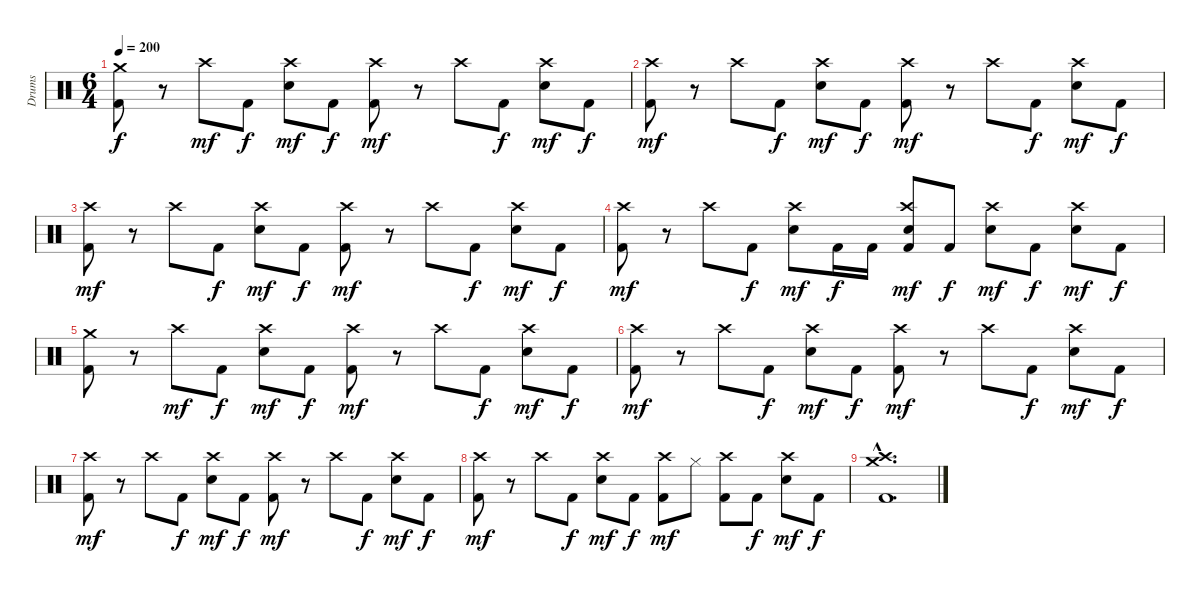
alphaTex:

\track ("Drums" "Drums") {instrument percussion}
\staff {score}
\articulation defaults
\ts (6 4)
\tempo 200
\clef neutral
\ks c
("Crash medium (hit)" "Kick (hit) 2").8{dy f} r.8 "Crash high (hit)".8{dy mf} "Kick (hit) 2".8{dy f} ("Crash high (hit)" "Snare (hit) 2").8{dy mf} "Kick (hit) 2".8{dy f} ("Crash high (hit)" "Kick (hit) 2").8{dy mf} r.8 "Crash high (hit)".8 "Kick (hit) 2".8{dy f} ("Crash high (hit)" "Snare (hit) 2").8{dy mf} "Kick (hit) 2".8{dy f} |
("Crash high (hit)" "Kick (hit) 2").8{dy mf} r.8 "Crash high (hit)".8 "Kick (hit) 2".8{dy f} ("Crash high (hit)" "Snare (hit) 2").8{dy mf} "Kick (hit) 2".8{dy f} ("Crash high (hit)" "Kick (hit) 2").8{dy mf} r.8 "Crash high (hit)".8 "Kick (hit) 2".8{dy f} ("Crash high (hit)" "Snare (hit) 2").8{dy mf} "Kick (hit) 2".8{dy f} |
("Crash high (hit)" "Kick (hit) 2").8{dy mf} r.8 "Crash high (hit)".8 "Kick (hit) 2".8{dy f} ("Crash high (hit)" "Snare (hit) 2").8{dy mf} "Kick (hit) 2".8{dy f} ("Crash high (hit)" "Kick (hit) 2").8{dy mf} r.8 "Crash high (hit)".8 "Kick (hit) 2".8{dy f} ("Crash high (hit)" "Snare (hit) 2").8{dy mf} "Kick (hit) 2".8{dy f} |
("Crash high (hit)" "Kick (hit) 2").8{dy mf} r.8 "Crash high (hit)".8 "Kick (hit) 2".8{dy f} ("Crash high (hit)" "Snare (hit) 2").8{dy mf} "Kick (hit) 2".16{dy f} "Kick (hit) 2".16 ("Crash high (hit)" "Snare (hit) 2" "Kick (hit) 2").8{dy mf} "Kick (hit) 2".8{dy f} ("Crash high (hit)" "Snare (hit) 2").8{dy mf} "Kick (hit) 2".8{dy f} ("Crash high (hit)" "Snare (hit) 2").8{dy mf} "Kick (hit) 2".8{dy f} |
("Crash medium (hit)" "Kick (hit) 2").8 r.8 "Crash high (hit)".8{dy mf} "Kick (hit) 2".8{dy f} ("Crash high (hit)" "Snare (hit) 2").8{dy mf} "Kick (hit) 2".8{dy f} ("Crash high (hit)" "Kick (hit) 2").8{dy mf} r.8 "Crash high (hit)".8 "Kick (hit) 2".8{dy f} ("Crash high (hit)" "Snare (hit) 2").8{dy mf} "Kick (hit) 2".8{dy f} |
("Crash high (hit)" "Kick (hit) 2").8{dy mf} r.8 "Crash high (hit)".8 "Kick (hit) 2".8{dy f} ("Crash high (hit)" "Snare (hit) 2").8{dy mf} "Kick (hit) 2".8{dy f} ("Crash high (hit)" "Kick (hit) 2").8{dy mf} r.8 "Crash high (hit)".8 "Kick (hit) 2".8{dy f} ("Crash high (hit)" "Snare (hit) 2").8{dy mf} "Kick (hit) 2".8{dy f} |
("Crash high (hit)" "Kick (hit) 2").8{dy mf} r.8 "Crash high (hit)".8 "Kick (hit) 2".8{dy f} ("Crash high (hit)" "Snare (hit) 2").8{dy mf} "Kick (hit) 2".8{dy f} ("Crash high (hit)" "Kick (hit) 2").8{dy mf} r.8 "Crash high (hit)".8 "Kick (hit) 2".8{dy f} ("Crash high (hit)" "Snare (hit) 2").8{dy mf} "Kick (hit) 2".8{dy f} |
("Crash high (hit)" "Kick (hit) 2").8{dy mf} r.8 "Crash high (hit)".8 "Kick (hit) 2".8{dy f} ("Crash high (hit)" "Snare (hit) 2").8{dy mf} "Kick (hit) 2".8{dy f} ("Crash high (hit)" "Kick (hit) 2").8{dy mf} "Hi-Hat (closed)".8 ("Crash high (hit)" "Kick (hit) 2").8 "Kick (hit) 2".8{dy f} ("Crash high (hit)" "Snare (hit) 2").8{dy mf} "Kick (hit) 2".8{dy f} |
("Crash medium (hit)"{hac} "Crash high (hit)"{hac} "Kick (hit) 2"{hac}).1{d}
